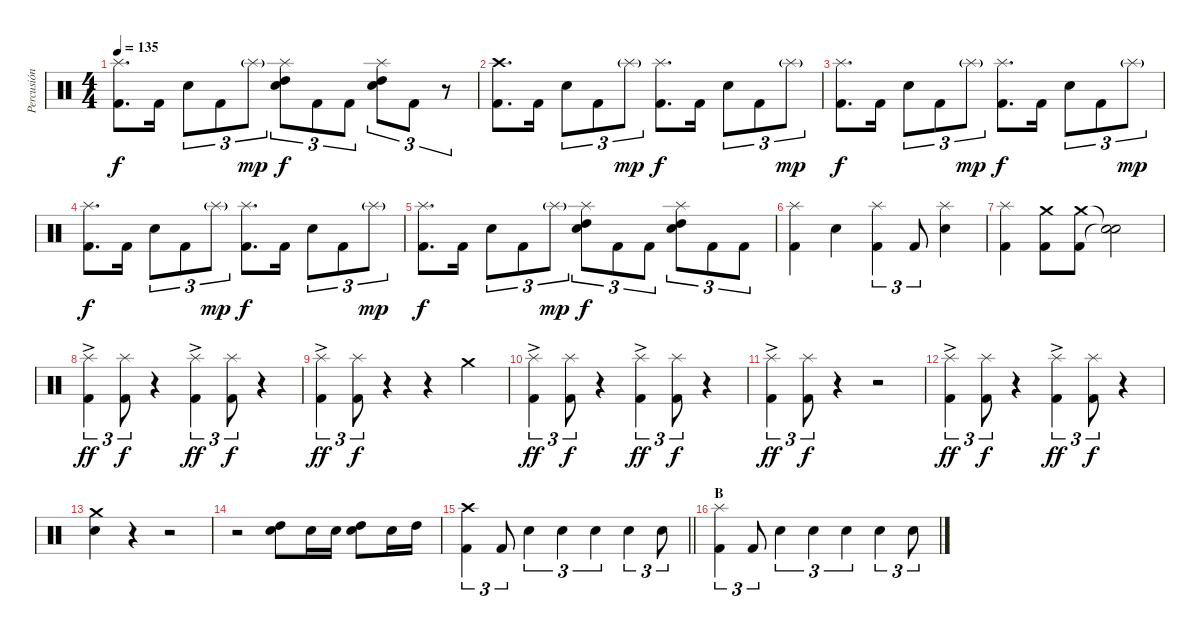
\track ("Percusión" "Percusión") {instrument percussion}
\staff {score}
\articulation defaults
\ts (4 4)
\tempo 135
\clef neutral
\ks c
("Splash (hit)" "Kick (hit) 2").8{d dy f} "Kick (hit) 2".16 "Snare (hit) 2".8{tu (3 2)} "Kick (hit) 2".8{tu (3 2)} "Splash (hit)"{g}.8{tu (3 2) dy mp} ("Splash (hit)" "High Tom (hit)" "Snare (hit) 2").8{tu (3 2) dy f} "Kick (hit) 2".8{tu (3 2)} "Kick (hit) 2".8{tu (3 2)} ("Splash (hit)" "High Tom (hit)" "Snare (hit) 2").8{tu (3 2)} "Kick (hit) 2".8{tu (3 2)} r.8{tu (3 2)} |
("Crash high (hit)" "Kick (hit) 2").8{d} "Kick (hit) 2".16 "Snare (hit) 2".8{tu (3 2)} "Kick (hit) 2".8{tu (3 2)} "Splash (hit)"{g}.8{tu (3 2) dy mp} ("Splash (hit)" "Kick (hit) 2").8{d dy f} "Kick (hit) 2".16 "Snare (hit) 2".8{tu (3 2)} "Kick (hit) 2".8{tu (3 2)} "Splash (hit)"{g}.8{tu (3 2) dy mp} |
("Splash (hit)" "Kick (hit) 2").8{d dy f} "Kick (hit) 2".16 "Snare (hit) 2".8{tu (3 2)} "Kick (hit) 2".8{tu (3 2)} "Splash (hit)"{g}.8{tu (3 2) dy mp} ("Splash (hit)" "Kick (hit) 2").8{d dy f} "Kick (hit) 2".16 "Snare (hit) 2".8{tu (3 2)} "Kick (hit) 2".8{tu (3 2)} "Splash (hit)"{g}.8{tu (3 2) dy mp} |
("Splash (hit)" "Kick (hit) 2").8{d dy f} "Kick (hit) 2".16 "Snare (hit) 2".8{tu (3 2)} "Kick (hit) 2".8{tu (3 2)} "Splash (hit)"{g}.8{tu (3 2) dy mp} ("Splash (hit)" "Kick (hit) 2").8{d dy f} "Kick (hit) 2".16 "Snare (hit) 2".8{tu (3 2)} "Kick (hit) 2".8{tu (3 2)} "Splash (hit)"{g}.8{tu (3 2) dy mp} |
("Splash (hit)" "Kick (hit) 2").8{d dy f} "Kick (hit) 2".16 "Snare (hit) 2".8{tu (3 2)} "Kick (hit) 2".8{tu (3 2)} "Splash (hit)"{g}.8{tu (3 2) dy mp} ("Splash (hit)" "High Tom (hit)" "Snare (hit) 2").8{tu (3 2) dy f} "Kick (hit) 2".8{tu (3 2)} "Kick (hit) 2".8{tu (3 2)} ("Splash (hit)" "High Tom (hit)" "Snare (hit) 2").8{tu (3 2)} "Kick (hit) 2".8{tu (3 2)} "Kick (hit) 2".8{tu (3 2)} |
("Splash (hit)" "Kick (hit) 2").4 "Snare (hit) 2".4 ("Splash (hit)" "Kick (hit) 2").4{tu (3 2)} "Kick (hit) 2".8{tu (3 2)} ("Splash (hit)" "Snare (hit) 2").4 |
("Splash (hit)" "Kick (hit) 2").4 ("Crash medium (hit)" "Kick (hit) 2").8 ("Crash medium (hit)" "Kick (hit) 2").8 ("Snare (hit)"{t} "Snare (hit)"{t}).2 |
("Splash (hit)"{ac} "Kick (hit) 2"{ac}).4{tu (3 2) dy ff} ("Splash (hit)" "Kick (hit) 2").8{tu (3 2) dy f} r.4 ("Splash (hit)"{ac} "Kick (hit) 2"{ac}).4{tu (3 2) dy ff} ("Splash (hit)" "Kick (hit) 2").8{tu (3 2) dy f} r.4 |
("Splash (hit)"{ac} "Kick (hit) 2"{ac}).4{tu (3 2) dy ff} ("Splash (hit)" "Kick (hit) 2").8{tu (3 2) dy f} r.4 r.4 "Crash medium (hit)".4 |
("Splash (hit)"{ac} "Kick (hit) 2"{ac}).4{tu (3 2) dy ff} ("Splash (hit)" "Kick (hit) 2").8{tu (3 2) dy f} r.4 ("Splash (hit)"{ac} "Kick (hit) 2"{ac}).4{tu (3 2) dy ff} ("Splash (hit)" "Kick (hit) 2").8{tu (3 2) dy f} r.4 |
("Splash (hit)"{ac} "Kick (hit) 2"{ac}).4{tu (3 2) dy ff} ("Splash (hit)" "Kick (hit) 2").8{tu (3 2) dy f} r.4 r.2 |
("Splash (hit)"{ac} "Kick (hit) 2"{ac}).4{tu (3 2) dy ff} ("Splash (hit)" "Kick (hit) 2").8{tu (3 2) dy f} r.4 ("Splash (hit)"{ac} "Kick (hit) 2"{ac}).4{tu (3 2) dy ff} ("Splash (hit)" "Kick (hit) 2").8{tu (3 2) dy f} r.4 |
("Crash medium (hit)" "Snare (hit) 2").4 r.4 r.2 |
r.2 ("Snare (hit) 2" "High Tom (hit)").8 "Snare (hit) 2".16 "Snare (hit) 2".16 ("Snare (hit) 2" "High Tom (hit)").8 "Snare (hit) 2".16 "High Tom (hit)".16 |
\barLineRight lightlight
("Crash high (hit)" "Kick (hit) 2").4{tu (3 2)} "Kick (hit) 2".8{tu (3 2)} "Snare (hit) 2".4{tu (3 2)} "Snare (hit) 2".4{tu (3 2)} "Snare (hit) 2".4{tu (3 2)} "Snare (hit) 2".4{tu (3 2)} "Snare (hit) 2".8{tu (3 2)} |
\section ("" "B")
("Splash (hit)" "Kick (hit) 2").4{tu (3 2)} "Kick (hit) 2".8{tu (3 2)} "Snare (hit) 2".4{tu (3 2)} "Snare (hit) 2".4{tu (3 2)} "Snare (hit) 2".4{tu (3 2)} "Snare (hit) 2".4{tu (3 2)} "Snare (hit) 2".8{tu (3 2)}
